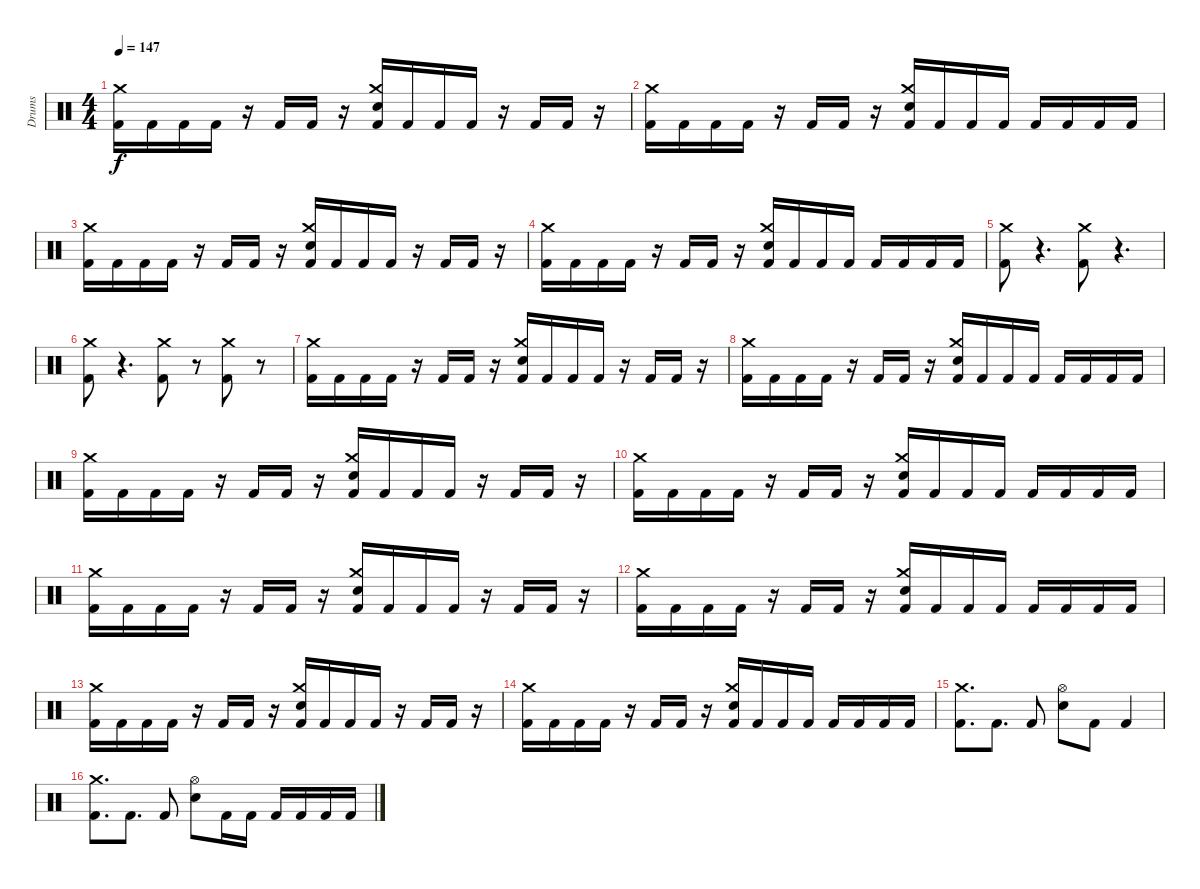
\track ("Drums" "Drums") {instrument percussion}
\staff {score}
\articulation defaults
\ts (4 4)
\tempo 147
\clef neutral
\ks c
("Kick (hit) 2" "Crash medium (hit)").16{dy f} "Kick (hit) 2".16 "Kick (hit) 2".16 "Kick (hit) 2".16 r.16 "Kick (hit) 2".16 "Kick (hit) 2".16 r.16 ("Kick (hit) 2" "Snare (hit) 2" "Crash medium (hit)").16 "Kick (hit) 2".16 "Kick (hit) 2".16 "Kick (hit) 2".16 r.16 "Kick (hit) 2".16 "Kick (hit) 2".16 r.16 |
("Kick (hit) 2" "Crash medium (hit)").16 "Kick (hit) 2".16 "Kick (hit) 2".16 "Kick (hit) 2".16 r.16 "Kick (hit) 2".16 "Kick (hit) 2".16 r.16 ("Kick (hit) 2" "Snare (hit) 2" "Crash medium (hit)").16 "Kick (hit) 2".16 "Kick (hit) 2".16 "Kick (hit) 2".16 "Kick (hit) 2".16 "Kick (hit) 2".16 "Kick (hit) 2".16 "Kick (hit) 2".16 |
("Kick (hit) 2" "Crash medium (hit)").16 "Kick (hit) 2".16 "Kick (hit) 2".16 "Kick (hit) 2".16 r.16 "Kick (hit) 2".16 "Kick (hit) 2".16 r.16 ("Kick (hit) 2" "Snare (hit) 2" "Crash medium (hit)").16 "Kick (hit) 2".16 "Kick (hit) 2".16 "Kick (hit) 2".16 r.16 "Kick (hit) 2".16 "Kick (hit) 2".16 r.16 |
("Kick (hit) 2" "Crash medium (hit)").16 "Kick (hit) 2".16 "Kick (hit) 2".16 "Kick (hit) 2".16 r.16 "Kick (hit) 2".16 "Kick (hit) 2".16 r.16 ("Kick (hit) 2" "Snare (hit) 2" "Crash medium (hit)").16 "Kick (hit) 2".16 "Kick (hit) 2".16 "Kick (hit) 2".16 "Kick (hit) 2".16 "Kick (hit) 2".16 "Kick (hit) 2".16 "Kick (hit) 2".16 |
("Kick (hit) 2" "Crash medium (hit)").8 r.4{d} ("Kick (hit) 2" "Crash medium (hit)").8 r.4{d} |
("Kick (hit) 2" "Crash medium (hit)").8 r.4{d} ("Kick (hit) 2" "Crash medium (hit)").8 r.8 ("Kick (hit) 2" "Crash medium (hit)").8 r.8 |
("Kick (hit) 2" "Crash medium (hit)").16 "Kick (hit) 2".16 "Kick (hit) 2".16 "Kick (hit) 2".16 r.16 "Kick (hit) 2".16 "Kick (hit) 2".16 r.16 ("Kick (hit) 2" "Snare (hit) 2" "Crash medium (hit)").16 "Kick (hit) 2".16 "Kick (hit) 2".16 "Kick (hit) 2".16 r.16 "Kick (hit) 2".16 "Kick (hit) 2".16 r.16 |
("Kick (hit) 2" "Crash medium (hit)").16 "Kick (hit) 2".16 "Kick (hit) 2".16 "Kick (hit) 2".16 r.16 "Kick (hit) 2".16 "Kick (hit) 2".16 r.16 ("Kick (hit) 2" "Snare (hit) 2" "Crash medium (hit)").16 "Kick (hit) 2".16 "Kick (hit) 2".16 "Kick (hit) 2".16 "Kick (hit) 2".16 "Kick (hit) 2".16 "Kick (hit) 2".16 "Kick (hit) 2".16 |
("Kick (hit) 2" "Crash medium (hit)").16 "Kick (hit) 2".16 "Kick (hit) 2".16 "Kick (hit) 2".16 r.16 "Kick (hit) 2".16 "Kick (hit) 2".16 r.16 ("Kick (hit) 2" "Snare (hit) 2" "Crash medium (hit)").16 "Kick (hit) 2".16 "Kick (hit) 2".16 "Kick (hit) 2".16 r.16 "Kick (hit) 2".16 "Kick (hit) 2".16 r.16 |
("Kick (hit) 2" "Crash medium (hit)").16 "Kick (hit) 2".16 "Kick (hit) 2".16 "Kick (hit) 2".16 r.16 "Kick (hit) 2".16 "Kick (hit) 2".16 r.16 ("Kick (hit) 2" "Snare (hit) 2" "Crash medium (hit)").16 "Kick (hit) 2".16 "Kick (hit) 2".16 "Kick (hit) 2".16 "Kick (hit) 2".16 "Kick (hit) 2".16 "Kick (hit) 2".16 "Kick (hit) 2".16 |
("Kick (hit) 2" "Crash medium (hit)").16 "Kick (hit) 2".16 "Kick (hit) 2".16 "Kick (hit) 2".16 r.16 "Kick (hit) 2".16 "Kick (hit) 2".16 r.16 ("Kick (hit) 2" "Snare (hit) 2" "Crash medium (hit)").16 "Kick (hit) 2".16 "Kick (hit) 2".16 "Kick (hit) 2".16 r.16 "Kick (hit) 2".16 "Kick (hit) 2".16 r.16 |
("Kick (hit) 2" "Crash medium (hit)").16 "Kick (hit) 2".16 "Kick (hit) 2".16 "Kick (hit) 2".16 r.16 "Kick (hit) 2".16 "Kick (hit) 2".16 r.16 ("Kick (hit) 2" "Snare (hit) 2" "Crash medium (hit)").16 "Kick (hit) 2".16 "Kick (hit) 2".16 "Kick (hit) 2".16 "Kick (hit) 2".16 "Kick (hit) 2".16 "Kick (hit) 2".16 "Kick (hit) 2".16 |
("Kick (hit) 2" "Crash medium (hit)").16 "Kick (hit) 2".16 "Kick (hit) 2".16 "Kick (hit) 2".16 r.16 "Kick (hit) 2".16 "Kick (hit) 2".16 r.16 ("Kick (hit) 2" "Snare (hit) 2" "Crash medium (hit)").16 "Kick (hit) 2".16 "Kick (hit) 2".16 "Kick (hit) 2".16 r.16 "Kick (hit) 2".16 "Kick (hit) 2".16 r.16 |
("Kick (hit) 2" "Crash medium (hit)").16 "Kick (hit) 2".16 "Kick (hit) 2".16 "Kick (hit) 2".16 r.16 "Kick (hit) 2".16 "Kick (hit) 2".16 r.16 ("Kick (hit) 2" "Snare (hit) 2" "Crash medium (hit)").16 "Kick (hit) 2".16 "Kick (hit) 2".16 "Kick (hit) 2".16 "Kick (hit) 2".16 "Kick (hit) 2".16 "Kick (hit) 2".16 "Kick (hit) 2".16 |
("Kick (hit) 2" "Crash medium (hit)").8{d} "Kick (hit) 2".8{d} "Kick (hit) 2".8 ("Snare (hit) 2" "Hi-Hat (open)").8 "Kick (hit) 2".8 "Kick (hit) 2".4 |
("Kick (hit) 2" "Crash medium (hit)").8{d} "Kick (hit) 2".8{d} "Kick (hit) 2".8 ("Snare (hit) 2" "Hi-Hat (open)").8 "Kick (hit) 2".16 "Kick (hit) 2".16 "Kick (hit) 2".16 "Kick (hit) 2".16 "Kick (hit) 2".16 "Kick (hit) 2".16
